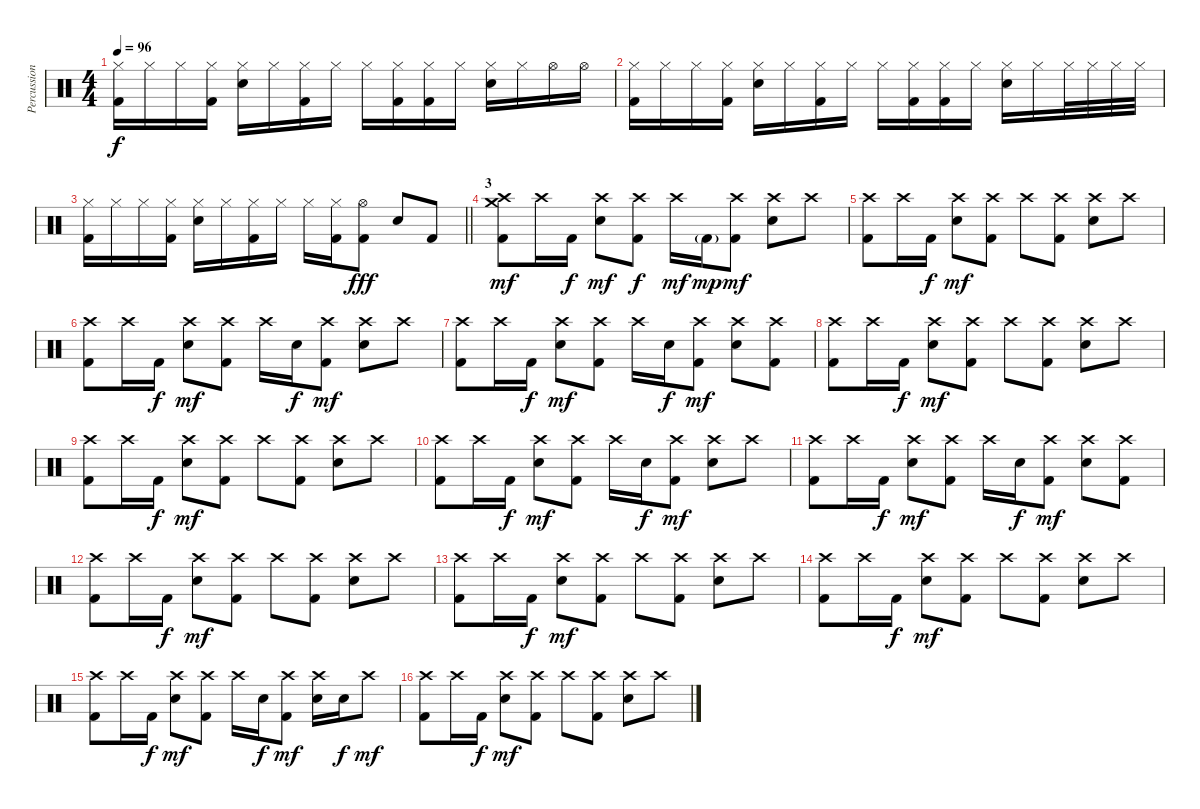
\track ("Percussion" "Percussion") {instrument percussion}
\staff {score}
\articulation defaults
\ts (4 4)
\tempo 96
\clef neutral
\ks c
("Hi-Hat (closed)" "Kick (hit) 2").16{dy f} "Hi-Hat (closed)".16 "Hi-Hat (closed)".16 ("Hi-Hat (closed)" "Kick (hit) 2").16 ("Hi-Hat (closed)" "Snare (hit) 2").16 "Hi-Hat (closed)".16 ("Hi-Hat (closed)" "Kick (hit) 2").16 "Hi-Hat (closed)".16 "Hi-Hat (closed)".16 ("Hi-Hat (closed)" "Kick (hit) 2").16 ("Hi-Hat (closed)" "Kick (hit) 2").16 "Hi-Hat (closed)".16 ("Hi-Hat (closed)" "Snare (hit) 2").16 "Hi-Hat (closed)".16 "Hi-Hat (open)".16 "Hi-Hat (open)".16 |
("Hi-Hat (closed)" "Kick (hit) 2").16 "Hi-Hat (closed)".16 "Hi-Hat (closed)".16 ("Hi-Hat (closed)" "Kick (hit) 2").16 ("Hi-Hat (closed)" "Snare (hit) 2").16 "Hi-Hat (closed)".16 ("Hi-Hat (closed)" "Kick (hit) 2").16 "Hi-Hat (closed)".16 "Hi-Hat (closed)".16 ("Hi-Hat (closed)" "Kick (hit) 2").16 ("Hi-Hat (closed)" "Kick (hit) 2").16 "Hi-Hat (closed)".16 ("Hi-Hat (closed)" "Snare (hit) 2").16 "Hi-Hat (closed)".16 "Hi-Hat (closed)".32 "Hi-Hat (closed)".32 "Hi-Hat (closed)".32 "Hi-Hat (closed)".32 |
\barLineRight lightlight
("Hi-Hat (closed)" "Kick (hit) 2").16 "Hi-Hat (closed)".16 "Hi-Hat (closed)".16 ("Hi-Hat (closed)" "Kick (hit) 2").16 ("Hi-Hat (closed)" "Snare (hit) 2").16 "Hi-Hat (closed)".16 ("Hi-Hat (closed)" "Kick (hit) 2").16 "Hi-Hat (closed)".16 "Hi-Hat (closed)".16 ("Hi-Hat (closed)" "Kick (hit) 2").16 ("Hi-Hat (open)" "Kick (hit) 2").8{dy fff} "Snare (hit) 2".8 "Kick (hit) 2".8 |
\section ("" "3")
("Crash medium (hit)" "Crash high (hit)" "Kick (hit) 2").8{dy mf} "Crash high (hit)".16 "Kick (hit) 2".16{dy f} ("Crash high (hit)" "Snare (hit) 2").8{dy mf} ("Crash high (hit)" "Kick (hit) 2").8{dy f} "Crash high (hit)".16{dy mf} "Kick (hit) 2"{g}.16{dy mp} ("Crash high (hit)" "Kick (hit) 2").8{dy mf} ("Crash high (hit)" "Snare (hit) 2").8 "Crash high (hit)".8 |
("Crash high (hit)" "Kick (hit) 2").8 "Crash high (hit)".16 "Kick (hit) 2".16{dy f} ("Crash high (hit)" "Snare (hit) 2").8{dy mf} ("Crash high (hit)" "Kick (hit) 2").8 "Crash high (hit)".8 ("Crash high (hit)" "Kick (hit) 2").8 ("Crash high (hit)" "Snare (hit) 2").8 "Crash high (hit)".8 |
("Crash high (hit)" "Kick (hit) 2").8 "Crash high (hit)".16 "Kick (hit) 2".16{dy f} ("Crash high (hit)" "Snare (hit) 2").8{dy mf} ("Crash high (hit)" "Kick (hit) 2").8 "Crash high (hit)".16 "Snare (hit) 2".16{dy f} ("Crash high (hit)" "Kick (hit) 2").8{dy mf} ("Crash high (hit)" "Snare (hit) 2").8 "Crash high (hit)".8 |
("Crash high (hit)" "Kick (hit) 2").8 "Crash high (hit)".16 "Kick (hit) 2".16{dy f} ("Crash high (hit)" "Snare (hit) 2").8{dy mf} ("Crash high (hit)" "Kick (hit) 2").8 "Crash high (hit)".16 "Snare (hit) 2".16{dy f} ("Crash high (hit)" "Kick (hit) 2").8{dy mf} ("Crash high (hit)" "Snare (hit) 2").8 ("Crash high (hit)" "Kick (hit) 2").8 |
("Crash high (hit)" "Kick (hit) 2").8 "Crash high (hit)".16 "Kick (hit) 2".16{dy f} ("Crash high (hit)" "Snare (hit) 2").8{dy mf} ("Crash high (hit)" "Kick (hit) 2").8 "Crash high (hit)".8 ("Crash high (hit)" "Kick (hit) 2").8 ("Crash high (hit)" "Snare (hit) 2").8 "Crash high (hit)".8 |
("Crash high (hit)" "Kick (hit) 2").8 "Crash high (hit)".16 "Kick (hit) 2".16{dy f} ("Crash high (hit)" "Snare (hit) 2").8{dy mf} ("Crash high (hit)" "Kick (hit) 2").8 "Crash high (hit)".8 ("Crash high (hit)" "Kick (hit) 2").8 ("Crash high (hit)" "Snare (hit) 2").8 "Crash high (hit)".8 |
("Crash high (hit)" "Kick (hit) 2").8 "Crash high (hit)".16 "Kick (hit) 2".16{dy f} ("Crash high (hit)" "Snare (hit) 2").8{dy mf} ("Crash high (hit)" "Kick (hit) 2").8 "Crash high (hit)".16 "Snare (hit) 2".16{dy f} ("Crash high (hit)" "Kick (hit) 2").8{dy mf} ("Crash high (hit)" "Snare (hit) 2").8 "Crash high (hit)".8 |
("Crash high (hit)" "Kick (hit) 2").8 "Crash high (hit)".16 "Kick (hit) 2".16{dy f} ("Crash high (hit)" "Snare (hit) 2").8{dy mf} ("Crash high (hit)" "Kick (hit) 2").8 "Crash high (hit)".16 "Snare (hit) 2".16{dy f} ("Crash high (hit)" "Kick (hit) 2").8{dy mf} ("Crash high (hit)" "Snare (hit) 2").8 ("Crash high (hit)" "Kick (hit) 2").8 |
("Crash high (hit)" "Kick (hit) 2").8 "Crash high (hit)".16 "Kick (hit) 2".16{dy f} ("Crash high (hit)" "Snare (hit) 2").8{dy mf} ("Crash high (hit)" "Kick (hit) 2").8 "Crash high (hit)".8 ("Crash high (hit)" "Kick (hit) 2").8 ("Crash high (hit)" "Snare (hit) 2").8 "Crash high (hit)".8 |
("Crash high (hit)" "Kick (hit) 2").8 "Crash high (hit)".16 "Kick (hit) 2".16{dy f} ("Crash high (hit)" "Snare (hit) 2").8{dy mf} ("Crash high (hit)" "Kick (hit) 2").8 "Crash high (hit)".8 ("Crash high (hit)" "Kick (hit) 2").8 ("Crash high (hit)" "Snare (hit) 2").8 "Crash high (hit)".8 |
("Crash high (hit)" "Kick (hit) 2").8 "Crash high (hit)".16 "Kick (hit) 2".16{dy f} ("Crash high (hit)" "Snare (hit) 2").8{dy mf} ("Crash high (hit)" "Kick (hit) 2").8 "Crash high (hit)".8 ("Crash high (hit)" "Kick (hit) 2").8 ("Crash high (hit)" "Snare (hit) 2").8 "Crash high (hit)".8 |
("Crash high (hit)" "Kick (hit) 2").8 "Crash high (hit)".16 "Kick (hit) 2".16{dy f} ("Crash high (hit)" "Snare (hit) 2").8{dy mf} ("Crash high (hit)" "Kick (hit) 2").8 "Crash high (hit)".16 "Snare (hit) 2".16{dy f} ("Crash high (hit)" "Kick (hit) 2").8{dy mf} ("Crash high (hit)" "Snare (hit) 2").16 "Snare (hit) 2".16{dy f} "Crash high (hit)".8{dy mf} |
("Crash high (hit)" "Kick (hit) 2").8 "Crash high (hit)".16 "Kick (hit) 2".16{dy f} ("Crash high (hit)" "Snare (hit) 2").8{dy mf} ("Crash high (hit)" "Kick (hit) 2").8 "Crash high (hit)".8 ("Crash high (hit)" "Kick (hit) 2").8 ("Crash high (hit)" "Snare (hit) 2").8 "Crash high (hit)".8
